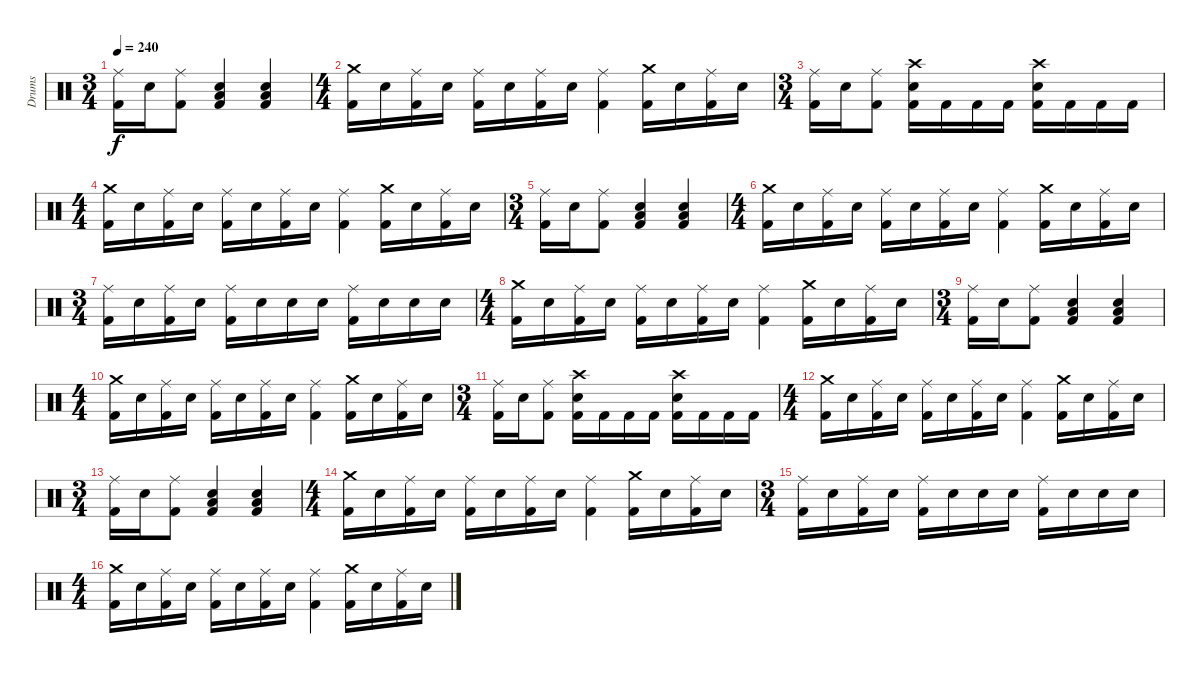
\track ("Drums" "Drums") {instrument percussion}
\staff {score}
\articulation defaults
\ts (3 4)
\tempo 240
\clef neutral
\ks c
("Ride (middle)" "Kick (hit) 2").16{dy f} "Electric Snare (hit)".16 ("Ride (middle)" "Kick (hit) 2").8 ("Low Tom (hit)" "Electric Snare (hit)" "Kick (hit) 2").4 ("Low Tom (hit)" "Electric Snare (hit)" "Kick (hit) 2").4 |
\ts (4 4)
("Crash medium (hit)" "Kick (hit) 2").16 "Electric Snare (hit)".16 ("Ride (middle)" "Kick (hit) 2").16 "Electric Snare (hit)".16 ("Ride (middle)" "Kick (hit) 2").16 "Electric Snare (hit)".16 ("Ride (middle)" "Kick (hit) 2").16 "Electric Snare (hit)".16 ("Ride (middle)" "Kick (hit) 2").4 ("Crash medium (hit)" "Kick (hit) 2").16 "Electric Snare (hit)".16 ("Ride (middle)" "Kick (hit) 2").16 "Electric Snare (hit)".16 |
\ts (3 4)
("Ride (middle)" "Kick (hit) 2").16 "Electric Snare (hit)".16 ("Ride (middle)" "Kick (hit) 2").8 ("Crash high (hit)" "Electric Snare (hit)" "Kick (hit) 2").16 "Kick (hit) 2".16 "Kick (hit) 2".16 "Kick (hit) 2".16 ("Crash high (hit)" "Electric Snare (hit)" "Kick (hit) 2").16 "Kick (hit) 2".16 "Kick (hit) 2".16 "Kick (hit) 2".16 |
\ts (4 4)
("Crash medium (hit)" "Kick (hit) 2").16 "Electric Snare (hit)".16 ("Ride (middle)" "Kick (hit) 2").16 "Electric Snare (hit)".16 ("Ride (middle)" "Kick (hit) 2").16 "Electric Snare (hit)".16 ("Ride (middle)" "Kick (hit) 2").16 "Electric Snare (hit)".16 ("Ride (middle)" "Kick (hit) 2").4 ("Crash medium (hit)" "Kick (hit) 2").16 "Electric Snare (hit)".16 ("Ride (middle)" "Kick (hit) 2").16 "Electric Snare (hit)".16 |
\ts (3 4)
("Ride (middle)" "Kick (hit) 2").16 "Electric Snare (hit)".16 ("Ride (middle)" "Kick (hit) 2").8 ("Low Tom (hit)" "Electric Snare (hit)" "Kick (hit) 2").4 ("Low Tom (hit)" "Electric Snare (hit)" "Kick (hit) 2").4 |
\ts (4 4)
("Crash medium (hit)" "Kick (hit) 2").16 "Electric Snare (hit)".16 ("Ride (middle)" "Kick (hit) 2").16 "Electric Snare (hit)".16 ("Ride (middle)" "Kick (hit) 2").16 "Electric Snare (hit)".16 ("Ride (middle)" "Kick (hit) 2").16 "Electric Snare (hit)".16 ("Ride (middle)" "Kick (hit) 2").4 ("Crash medium (hit)" "Kick (hit) 2").16 "Electric Snare (hit)".16 ("Ride (middle)" "Kick (hit) 2").16 "Electric Snare (hit)".16 |
\ts (3 4)
("Ride (middle)" "Kick (hit) 2").16 "Electric Snare (hit)".16 ("Ride (middle)" "Kick (hit) 2").16 "Electric Snare (hit)".16 ("Ride (middle)" "Kick (hit) 2").16 "Electric Snare (hit)".16 "Electric Snare (hit)".16 "Electric Snare (hit)".16 ("Ride (middle)" "Kick (hit) 2").16 "Electric Snare (hit)".16 "Electric Snare (hit)".16 "Electric Snare (hit)".16 |
\ts (4 4)
("Crash medium (hit)" "Kick (hit) 2").16 "Electric Snare (hit)".16 ("Ride (middle)" "Kick (hit) 2").16 "Electric Snare (hit)".16 ("Ride (middle)" "Kick (hit) 2").16 "Electric Snare (hit)".16 ("Ride (middle)" "Kick (hit) 2").16 "Electric Snare (hit)".16 ("Ride (middle)" "Kick (hit) 2").4 ("Crash medium (hit)" "Kick (hit) 2").16 "Electric Snare (hit)".16 ("Ride (middle)" "Kick (hit) 2").16 "Electric Snare (hit)".16 |
\ts (3 4)
("Ride (middle)" "Kick (hit) 2").16 "Electric Snare (hit)".16 ("Ride (middle)" "Kick (hit) 2").8 ("Low Tom (hit)" "Electric Snare (hit)" "Kick (hit) 2").4 ("Low Tom (hit)" "Electric Snare (hit)" "Kick (hit) 2").4 |
\ts (4 4)
("Crash medium (hit)" "Kick (hit) 2").16 "Electric Snare (hit)".16 ("Ride (middle)" "Kick (hit) 2").16 "Electric Snare (hit)".16 ("Ride (middle)" "Kick (hit) 2").16 "Electric Snare (hit)".16 ("Ride (middle)" "Kick (hit) 2").16 "Electric Snare (hit)".16 ("Ride (middle)" "Kick (hit) 2").4 ("Crash medium (hit)" "Kick (hit) 2").16 "Electric Snare (hit)".16 ("Ride (middle)" "Kick (hit) 2").16 "Electric Snare (hit)".16 |
\ts (3 4)
("Ride (middle)" "Kick (hit) 2").16 "Electric Snare (hit)".16 ("Ride (middle)" "Kick (hit) 2").8 ("Crash high (hit)" "Electric Snare (hit)" "Kick (hit) 2").16 "Kick (hit) 2".16 "Kick (hit) 2".16 "Kick (hit) 2".16 ("Crash high (hit)" "Electric Snare (hit)" "Kick (hit) 2").16 "Kick (hit) 2".16 "Kick (hit) 2".16 "Kick (hit) 2".16 |
\ts (4 4)
("Crash medium (hit)" "Kick (hit) 2").16 "Electric Snare (hit)".16 ("Ride (middle)" "Kick (hit) 2").16 "Electric Snare (hit)".16 ("Ride (middle)" "Kick (hit) 2").16 "Electric Snare (hit)".16 ("Ride (middle)" "Kick (hit) 2").16 "Electric Snare (hit)".16 ("Ride (middle)" "Kick (hit) 2").4 ("Crash medium (hit)" "Kick (hit) 2").16 "Electric Snare (hit)".16 ("Ride (middle)" "Kick (hit) 2").16 "Electric Snare (hit)".16 |
\ts (3 4)
("Ride (middle)" "Kick (hit) 2").16 "Electric Snare (hit)".16 ("Ride (middle)" "Kick (hit) 2").8 ("Low Tom (hit)" "Electric Snare (hit)" "Kick (hit) 2").4 ("Low Tom (hit)" "Electric Snare (hit)" "Kick (hit) 2").4 |
\ts (4 4)
("Crash medium (hit)" "Kick (hit) 2").16 "Electric Snare (hit)".16 ("Ride (middle)" "Kick (hit) 2").16 "Electric Snare (hit)".16 ("Ride (middle)" "Kick (hit) 2").16 "Electric Snare (hit)".16 ("Ride (middle)" "Kick (hit) 2").16 "Electric Snare (hit)".16 ("Ride (middle)" "Kick (hit) 2").4 ("Crash medium (hit)" "Kick (hit) 2").16 "Electric Snare (hit)".16 ("Ride (middle)" "Kick (hit) 2").16 "Electric Snare (hit)".16 |
\ts (3 4)
("Ride (middle)" "Kick (hit) 2").16 "Electric Snare (hit)".16 ("Ride (middle)" "Kick (hit) 2").16 "Electric Snare (hit)".16 ("Ride (middle)" "Kick (hit) 2").16 "Electric Snare (hit)".16 "Electric Snare (hit)".16 "Electric Snare (hit)".16 ("Ride (middle)" "Kick (hit) 2").16 "Electric Snare (hit)".16 "Electric Snare (hit)".16 "Electric Snare (hit)".16 |
\ts (4 4)
("Crash medium (hit)" "Kick (hit) 2").16 "Electric Snare (hit)".16 ("Ride (middle)" "Kick (hit) 2").16 "Electric Snare (hit)".16 ("Ride (middle)" "Kick (hit) 2").16 "Electric Snare (hit)".16 ("Ride (middle)" "Kick (hit) 2").16 "Electric Snare (hit)".16 ("Ride (middle)" "Kick (hit) 2").4{volume 11} ("Crash medium (hit)" "Kick (hit) 2").16 "Electric Snare (hit)".16 ("Ride (middle)" "Kick (hit) 2").16 "Electric Snare (hit)".16
